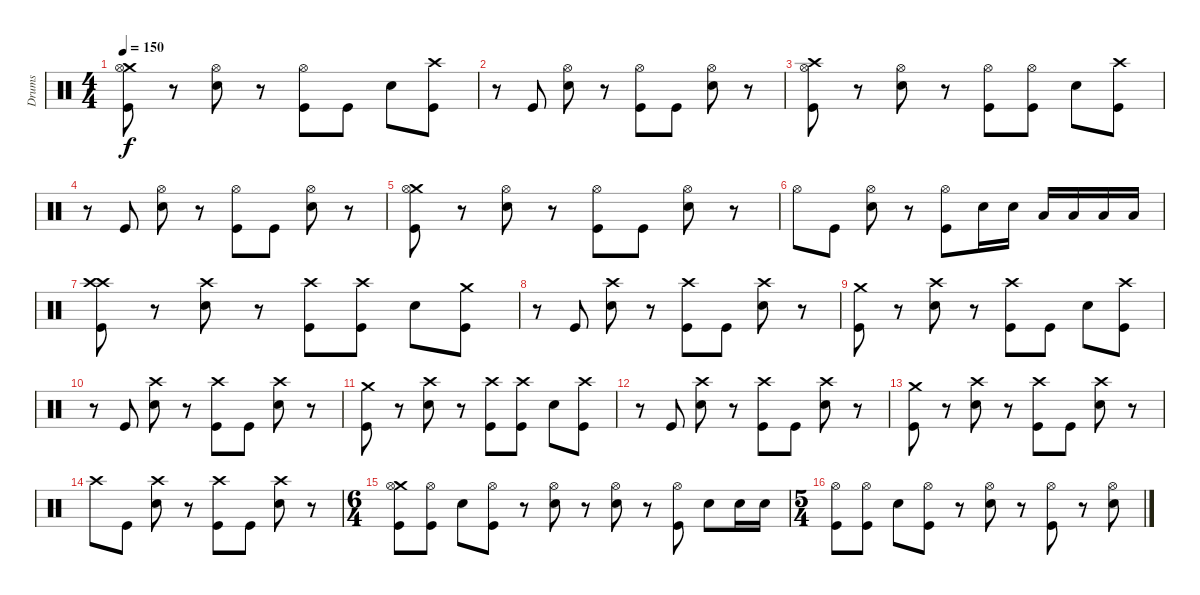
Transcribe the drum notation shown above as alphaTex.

\track ("Drums" "Drums") {instrument percussion}
\staff {score}
\articulation defaults
\ts (4 4)
\tempo 150
\clef neutral
\ks c
("Crash medium (hit)" "Hi-Hat (open)" "Kick (hit)").8{dy f} r.8 ("Hi-Hat (open)" "Electric Snare (hit)").8 r.8 ("Hi-Hat (open)" "Kick (hit)").8 "Kick (hit)".8 "Electric Snare (hit)".8 ("Crash high (hit)" "Kick (hit)").8 |
r.8 "Kick (hit)".8 ("Hi-Hat (open)" "Electric Snare (hit)").8 r.8 ("Hi-Hat (open)" "Kick (hit)").8 "Kick (hit)".8 ("Hi-Hat (open)" "Electric Snare (hit)").8 r.8 |
("Crash high (hit)" "Hi-Hat (open)" "Kick (hit)").8 r.8 ("Hi-Hat (open)" "Electric Snare (hit)").8 r.8 ("Hi-Hat (open)" "Kick (hit)").8 ("Hi-Hat (open)" "Kick (hit)").8 "Electric Snare (hit)".8 ("Crash high (hit)" "Kick (hit)").8 |
r.8 "Kick (hit)".8 ("Hi-Hat (open)" "Electric Snare (hit)").8 r.8 ("Hi-Hat (open)" "Kick (hit)").8 "Kick (hit)".8 ("Hi-Hat (open)" "Electric Snare (hit)").8 r.8 |
("Crash medium (hit)" "Hi-Hat (open)" "Kick (hit)").8 r.8 ("Hi-Hat (open)" "Electric Snare (hit)").8 r.8 ("Hi-Hat (open)" "Kick (hit)").8 "Kick (hit)".8 ("Hi-Hat (open)" "Electric Snare (hit)").8 r.8 |
"Hi-Hat (open)".8 "Kick (hit)".8 ("Hi-Hat (open)" "Electric Snare (hit)").8 r.8 ("Hi-Hat (open)" "Kick (hit)").8 "Electric Snare (hit)".16 "Electric Snare (hit)".16 "Low Tom (hit)".16 "Low Tom (hit)".16 "Low Floor Tom (hit)".16 "Low Floor Tom (hit)".16 |
("Crash high (hit)" "Crash high (hit)" "Kick (hit)").8 r.8 ("Crash high (hit)" "Electric Snare (hit)").8 r.8 ("Crash high (hit)" "Kick (hit)").8 ("Crash high (hit)" "Kick (hit)").8 "Electric Snare (hit)".8 ("Crash medium (hit)" "Kick (hit)").8 |
r.8 "Kick (hit)".8 ("Crash high (hit)" "Electric Snare (hit)").8 r.8 ("Crash high (hit)" "Kick (hit)").8 "Kick (hit)".8 ("Crash high (hit)" "Electric Snare (hit)").8 r.8 |
("Crash medium (hit)" "Kick (hit)").8 r.8 ("Crash high (hit)" "Electric Snare (hit)").8 r.8 ("Crash high (hit)" "Kick (hit)").8 "Kick (hit)".8 "Electric Snare (hit)".8 ("Crash high (hit)" "Kick (hit)").8 |
r.8 "Kick (hit)".8 ("Crash high (hit)" "Electric Snare (hit)").8 r.8 ("Crash high (hit)" "Kick (hit)").8 "Kick (hit)".8 ("Crash high (hit)" "Electric Snare (hit)").8 r.8 |
("Crash medium (hit)" "Kick (hit)").8 r.8 ("Crash high (hit)" "Electric Snare (hit)").8 r.8 ("Crash high (hit)" "Kick (hit)").8 ("Crash high (hit)" "Kick (hit)").8 "Electric Snare (hit)".8 ("Crash high (hit)" "Kick (hit)").8 |
r.8 "Kick (hit)".8 ("Crash high (hit)" "Electric Snare (hit)").8 r.8 ("Crash high (hit)" "Kick (hit)").8 "Kick (hit)".8 ("Crash high (hit)" "Electric Snare (hit)").8 r.8 |
("Crash medium (hit)" "Kick (hit)").8 r.8 ("Crash high (hit)" "Electric Snare (hit)").8 r.8 ("Crash high (hit)" "Kick (hit)").8 "Kick (hit)".8 ("Crash high (hit)" "Electric Snare (hit)").8 r.8 |
"Crash high (hit)".8 "Kick (hit)".8 ("Crash high (hit)" "Electric Snare (hit)").8 r.8 ("Crash high (hit)" "Kick (hit)").8 "Kick (hit)".8 ("Crash high (hit)" "Electric Snare (hit)").8 r.8 |
\ts (6 4)
("Crash medium (hit)" "Hi-Hat (open)" "Kick (hit)").8 ("Hi-Hat (open)" "Kick (hit)").8 "Electric Snare (hit)".8 ("Hi-Hat (open)" "Kick (hit)").8 r.8 ("Hi-Hat (open)" "Electric Snare (hit)").8 r.8 ("Hi-Hat (open)" "Electric Snare (hit)").8 r.8 ("Hi-Hat (open)" "Kick (hit)").8 "Electric Snare (hit)".8 "Electric Snare (hit)".16 "Electric Snare (hit)".16 |
\ts (5 4)
("Hi-Hat (open)" "Kick (hit)").8 ("Hi-Hat (open)" "Kick (hit)").8 "Electric Snare (hit)".8 ("Hi-Hat (open)" "Kick (hit)").8 r.8 ("Hi-Hat (open)" "Electric Snare (hit)").8 r.8 ("Hi-Hat (open)" "Kick (hit)").8 r.8 ("Hi-Hat (open)" "Electric Snare (hit)").8
